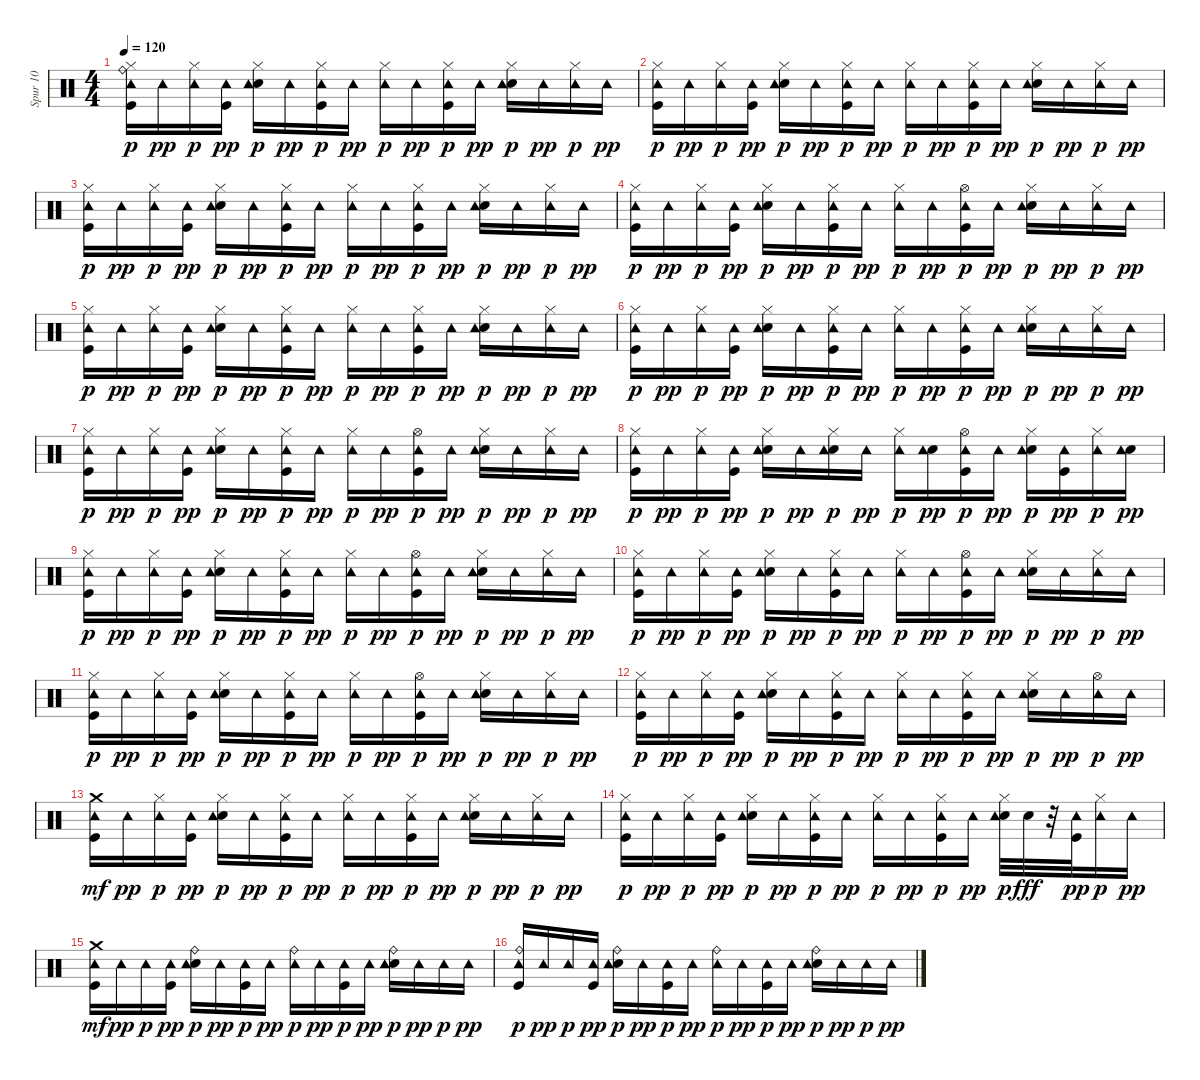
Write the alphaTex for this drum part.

\track ("Spur 10" "Spur 10") {instrument percussion}
\staff {score}
\articulation defaults
\ts (4 4)
\tempo 120
\clef neutral
\ks c
("Kick (hit)" "Hi-Hat (closed)" "Ride (bell)" "Tambourine (hit)").16{dy p} "Tambourine (hit)".16{dy pp} ("Hi-Hat (closed)" "Tambourine (hit)").16{dy p} ("Kick (hit)" "Tambourine (hit)").16{dy pp} ("Electric Snare (hit)" "Hi-Hat (closed)" "Tambourine (hit)").16{dy p} "Tambourine (hit)".16{dy pp} ("Kick (hit)" "Hi-Hat (closed)" "Tambourine (hit)").16{dy p} "Tambourine (hit)".16{dy pp} ("Hi-Hat (closed)" "Tambourine (hit)").16{dy p} "Tambourine (hit)".16{dy pp} ("Kick (hit)" "Hi-Hat (closed)" "Tambourine (hit)").16{dy p} "Tambourine (hit)".16{dy pp} ("Electric Snare (hit)" "Hi-Hat (closed)" "Tambourine (hit)").16{dy p} "Tambourine (hit)".16{dy pp} ("Hi-Hat (closed)" "Tambourine (hit)").16{dy p} "Tambourine (hit)".16{dy pp} |
("Kick (hit)" "Hi-Hat (closed)" "Tambourine (hit)").16{dy p} "Tambourine (hit)".16{dy pp} ("Hi-Hat (closed)" "Tambourine (hit)").16{dy p} ("Kick (hit)" "Tambourine (hit)").16{dy pp} ("Electric Snare (hit)" "Hi-Hat (closed)" "Tambourine (hit)").16{dy p} "Tambourine (hit)".16{dy pp} ("Kick (hit)" "Hi-Hat (closed)" "Tambourine (hit)").16{dy p} "Tambourine (hit)".16{dy pp} ("Hi-Hat (closed)" "Tambourine (hit)").16{dy p} "Tambourine (hit)".16{dy pp} ("Kick (hit)" "Hi-Hat (closed)" "Tambourine (hit)").16{dy p} "Tambourine (hit)".16{dy pp} ("Electric Snare (hit)" "Hi-Hat (closed)" "Tambourine (hit)").16{dy p} "Tambourine (hit)".16{dy pp} ("Hi-Hat (closed)" "Tambourine (hit)").16{dy p} "Tambourine (hit)".16{dy pp} |
("Kick (hit)" "Hi-Hat (closed)" "Tambourine (hit)").16{dy p} "Tambourine (hit)".16{dy pp} ("Hi-Hat (closed)" "Tambourine (hit)").16{dy p} ("Kick (hit)" "Tambourine (hit)").16{dy pp} ("Electric Snare (hit)" "Hi-Hat (closed)" "Tambourine (hit)").16{dy p} "Tambourine (hit)".16{dy pp} ("Kick (hit)" "Hi-Hat (closed)" "Tambourine (hit)").16{dy p} "Tambourine (hit)".16{dy pp} ("Hi-Hat (closed)" "Tambourine (hit)").16{dy p} "Tambourine (hit)".16{dy pp} ("Kick (hit)" "Hi-Hat (closed)" "Tambourine (hit)").16{dy p} "Tambourine (hit)".16{dy pp} ("Electric Snare (hit)" "Hi-Hat (closed)" "Tambourine (hit)").16{dy p} "Tambourine (hit)".16{dy pp} ("Hi-Hat (closed)" "Tambourine (hit)").16{dy p} "Tambourine (hit)".16{dy pp} |
("Kick (hit)" "Hi-Hat (closed)" "Tambourine (hit)").16{dy p} "Tambourine (hit)".16{dy pp} ("Hi-Hat (closed)" "Tambourine (hit)").16{dy p} ("Kick (hit)" "Tambourine (hit)").16{dy pp} ("Electric Snare (hit)" "Hi-Hat (closed)" "Tambourine (hit)").16{dy p} "Tambourine (hit)".16{dy pp} ("Kick (hit)" "Hi-Hat (closed)" "Tambourine (hit)").16{dy p} "Tambourine (hit)".16{dy pp} ("Hi-Hat (closed)" "Tambourine (hit)").16{dy p} "Tambourine (hit)".16{dy pp} ("Kick (hit)" "Hi-Hat (open)" "Tambourine (hit)").16{dy p} "Tambourine (hit)".16{dy pp} ("Electric Snare (hit)" "Hi-Hat (closed)" "Tambourine (hit)").16{dy p} "Tambourine (hit)".16{dy pp} ("Hi-Hat (closed)" "Tambourine (hit)").16{dy p} "Tambourine (hit)".16{dy pp} |
("Kick (hit)" "Hi-Hat (closed)" "Tambourine (hit)").16{dy p} "Tambourine (hit)".16{dy pp} ("Hi-Hat (closed)" "Tambourine (hit)").16{dy p} ("Kick (hit)" "Tambourine (hit)").16{dy pp} ("Electric Snare (hit)" "Hi-Hat (closed)" "Tambourine (hit)").16{dy p} "Tambourine (hit)".16{dy pp} ("Kick (hit)" "Hi-Hat (closed)" "Tambourine (hit)").16{dy p} "Tambourine (hit)".16{dy pp} ("Hi-Hat (closed)" "Tambourine (hit)").16{dy p} "Tambourine (hit)".16{dy pp} ("Kick (hit)" "Hi-Hat (closed)" "Tambourine (hit)").16{dy p} "Tambourine (hit)".16{dy pp} ("Electric Snare (hit)" "Hi-Hat (closed)" "Tambourine (hit)").16{dy p} "Tambourine (hit)".16{dy pp} ("Hi-Hat (closed)" "Tambourine (hit)").16{dy p} "Tambourine (hit)".16{dy pp} |
("Kick (hit)" "Hi-Hat (closed)" "Tambourine (hit)").16{dy p} "Tambourine (hit)".16{dy pp} ("Hi-Hat (closed)" "Tambourine (hit)").16{dy p} ("Kick (hit)" "Tambourine (hit)").16{dy pp} ("Electric Snare (hit)" "Hi-Hat (closed)" "Tambourine (hit)").16{dy p} "Tambourine (hit)".16{dy pp} ("Kick (hit)" "Hi-Hat (closed)" "Tambourine (hit)").16{dy p} "Tambourine (hit)".16{dy pp} ("Hi-Hat (closed)" "Tambourine (hit)").16{dy p} "Tambourine (hit)".16{dy pp} ("Kick (hit)" "Hi-Hat (closed)" "Tambourine (hit)").16{dy p} "Tambourine (hit)".16{dy pp} ("Electric Snare (hit)" "Hi-Hat (closed)" "Tambourine (hit)").16{dy p} "Tambourine (hit)".16{dy pp} ("Hi-Hat (closed)" "Tambourine (hit)").16{dy p} "Tambourine (hit)".16{dy pp} |
("Kick (hit)" "Hi-Hat (closed)" "Tambourine (hit)").16{dy p} "Tambourine (hit)".16{dy pp} ("Hi-Hat (closed)" "Tambourine (hit)").16{dy p} ("Kick (hit)" "Tambourine (hit)").16{dy pp} ("Electric Snare (hit)" "Hi-Hat (closed)" "Tambourine (hit)").16{dy p} "Tambourine (hit)".16{dy pp} ("Kick (hit)" "Hi-Hat (closed)" "Tambourine (hit)").16{dy p} "Tambourine (hit)".16{dy pp} ("Hi-Hat (closed)" "Tambourine (hit)").16{dy p} "Tambourine (hit)".16{dy pp} ("Kick (hit)" "Hi-Hat (open)" "Tambourine (hit)").16{dy p} "Tambourine (hit)".16{dy pp} ("Electric Snare (hit)" "Hi-Hat (closed)" "Tambourine (hit)").16{dy p} "Tambourine (hit)".16{dy pp} ("Hi-Hat (closed)" "Tambourine (hit)").16{dy p} "Tambourine (hit)".16{dy pp} |
("Kick (hit)" "Hi-Hat (closed)" "Tambourine (hit)").16{dy p} "Tambourine (hit)".16{dy pp} ("Hi-Hat (closed)" "Tambourine (hit)").16{dy p} ("Kick (hit)" "Tambourine (hit)").16{dy pp} ("Electric Snare (hit)" "Hi-Hat (closed)" "Tambourine (hit)").16{dy p} "Tambourine (hit)".16{dy pp} ("Electric Snare (hit)" "Hi-Hat (closed)" "Tambourine (hit)").16{dy p} "Tambourine (hit)".16{dy pp} ("Hi-Hat (closed)" "Tambourine (hit)").16{dy p} ("Electric Snare (hit)" "Tambourine (hit)").16{dy pp} ("Kick (hit)" "Hi-Hat (open)" "Tambourine (hit)").16{dy p} "Tambourine (hit)".16{dy pp} ("Electric Snare (hit)" "Hi-Hat (closed)" "Tambourine (hit)").16{dy p} ("Kick (hit)" "Tambourine (hit)").16{dy pp} ("Hi-Hat (closed)" "Tambourine (hit)").16{dy p} ("Electric Snare (hit)" "Tambourine (hit)").16{dy pp} |
("Kick (hit)" "Hi-Hat (closed)" "Tambourine (hit)").16{dy p} "Tambourine (hit)".16{dy pp} ("Hi-Hat (closed)" "Tambourine (hit)").16{dy p} ("Kick (hit)" "Tambourine (hit)").16{dy pp} ("Electric Snare (hit)" "Hi-Hat (closed)" "Tambourine (hit)").16{dy p} "Tambourine (hit)".16{dy pp} ("Kick (hit)" "Hi-Hat (closed)" "Tambourine (hit)").16{dy p} "Tambourine (hit)".16{dy pp} ("Hi-Hat (closed)" "Tambourine (hit)").16{dy p} "Tambourine (hit)".16{dy pp} ("Kick (hit)" "Hi-Hat (open)" "Tambourine (hit)").16{dy p} "Tambourine (hit)".16{dy pp} ("Electric Snare (hit)" "Hi-Hat (closed)" "Tambourine (hit)").16{dy p} "Tambourine (hit)".16{dy pp} ("Hi-Hat (closed)" "Tambourine (hit)").16{dy p} "Tambourine (hit)".16{dy pp} |
("Kick (hit)" "Hi-Hat (closed)" "Tambourine (hit)").16{dy p} "Tambourine (hit)".16{dy pp} ("Hi-Hat (closed)" "Tambourine (hit)").16{dy p} ("Kick (hit)" "Tambourine (hit)").16{dy pp} ("Electric Snare (hit)" "Hi-Hat (closed)" "Tambourine (hit)").16{dy p} "Tambourine (hit)".16{dy pp} ("Kick (hit)" "Hi-Hat (closed)" "Tambourine (hit)").16{dy p} "Tambourine (hit)".16{dy pp} ("Hi-Hat (closed)" "Tambourine (hit)").16{dy p} "Tambourine (hit)".16{dy pp} ("Kick (hit)" "Hi-Hat (open)" "Tambourine (hit)").16{dy p} "Tambourine (hit)".16{dy pp} ("Electric Snare (hit)" "Hi-Hat (closed)" "Tambourine (hit)").16{dy p} "Tambourine (hit)".16{dy pp} ("Hi-Hat (closed)" "Tambourine (hit)").16{dy p} "Tambourine (hit)".16{dy pp} |
("Kick (hit)" "Hi-Hat (closed)" "Tambourine (hit)").16{dy p} "Tambourine (hit)".16{dy pp} ("Hi-Hat (closed)" "Tambourine (hit)").16{dy p} ("Kick (hit)" "Tambourine (hit)").16{dy pp} ("Electric Snare (hit)" "Hi-Hat (closed)" "Tambourine (hit)").16{dy p} "Tambourine (hit)".16{dy pp} ("Kick (hit)" "Hi-Hat (closed)" "Tambourine (hit)").16{dy p} "Tambourine (hit)".16{dy pp} ("Hi-Hat (closed)" "Tambourine (hit)").16{dy p} "Tambourine (hit)".16{dy pp} ("Kick (hit)" "Hi-Hat (open)" "Tambourine (hit)").16{dy p} "Tambourine (hit)".16{dy pp} ("Electric Snare (hit)" "Hi-Hat (closed)" "Tambourine (hit)").16{dy p} "Tambourine (hit)".16{dy pp} ("Hi-Hat (closed)" "Tambourine (hit)").16{dy p} "Tambourine (hit)".16{dy pp} |
("Kick (hit)" "Hi-Hat (closed)" "Tambourine (hit)").16{dy p} "Tambourine (hit)".16{dy pp} ("Hi-Hat (closed)" "Tambourine (hit)").16{dy p} ("Kick (hit)" "Tambourine (hit)").16{dy pp} ("Electric Snare (hit)" "Hi-Hat (closed)" "Tambourine (hit)").16{dy p} "Tambourine (hit)".16{dy pp} ("Kick (hit)" "Hi-Hat (closed)" "Tambourine (hit)").16{dy p} "Tambourine (hit)".16{dy pp} ("Hi-Hat (closed)" "Tambourine (hit)").16{dy p} "Tambourine (hit)".16{dy pp} ("Kick (hit)" "Hi-Hat (closed)" "Tambourine (hit)").16{dy p} "Tambourine (hit)".16{dy pp} ("Electric Snare (hit)" "Hi-Hat (closed)" "Tambourine (hit)").16{dy p} "Tambourine (hit)".16{dy pp} ("Hi-Hat (open)" "Tambourine (hit)").16{dy p} "Tambourine (hit)".16{dy pp} |
("Kick (hit)" "Tambourine (hit)" "Crash medium (hit)").16{dy mf} "Tambourine (hit)".16{dy pp} ("Hi-Hat (closed)" "Tambourine (hit)").16{dy p} ("Kick (hit)" "Tambourine (hit)").16{dy pp} ("Electric Snare (hit)" "Hi-Hat (closed)" "Tambourine (hit)").16{dy p} "Tambourine (hit)".16{dy pp} ("Kick (hit)" "Hi-Hat (closed)" "Tambourine (hit)").16{dy p} "Tambourine (hit)".16{dy pp} ("Hi-Hat (closed)" "Tambourine (hit)").16{dy p} "Tambourine (hit)".16{dy pp} ("Kick (hit)" "Hi-Hat (closed)" "Tambourine (hit)").16{dy p} "Tambourine (hit)".16{dy pp} ("Electric Snare (hit)" "Hi-Hat (closed)" "Tambourine (hit)").16{dy p} "Tambourine (hit)".16{dy pp} ("Hi-Hat (closed)" "Tambourine (hit)").16{dy p} "Tambourine (hit)".16{dy pp} |
("Kick (hit)" "Hi-Hat (closed)" "Tambourine (hit)").16{dy p} "Tambourine (hit)".16{dy pp} ("Hi-Hat (closed)" "Tambourine (hit)").16{dy p} ("Kick (hit)" "Tambourine (hit)").16{dy pp} ("Electric Snare (hit)" "Hi-Hat (closed)" "Tambourine (hit)").16{dy p} "Tambourine (hit)".16{dy pp} ("Kick (hit)" "Hi-Hat (closed)" "Tambourine (hit)").16{dy p} "Tambourine (hit)".16{dy pp} ("Hi-Hat (closed)" "Tambourine (hit)").16{dy p} "Tambourine (hit)".16{dy pp} ("Kick (hit)" "Hi-Hat (closed)" "Tambourine (hit)").16{dy p} "Tambourine (hit)".16{dy pp} ("Electric Snare (hit)" "Hi-Hat (closed)" "Tambourine (hit)").32{dy p} "Electric Snare (hit)".32{dy fff} r.32 ("Kick (hit)" "Tambourine (hit)").32{dy pp} ("Hi-Hat (closed)" "Tambourine (hit)").16{dy p} "Tambourine (hit)".16{dy pp} |
("Kick (hit)" "Tambourine (hit)" "Crash medium (hit)").16{dy mf} "Tambourine (hit)".16{dy pp} "Tambourine (hit)".16{dy p} ("Kick (hit)" "Tambourine (hit)").16{dy pp} ("Electric Snare (hit)" "Ride (bell)" "Tambourine (hit)").16{dy p} "Tambourine (hit)".16{dy pp} ("Kick (hit)" "Tambourine (hit)").16{dy p} "Tambourine (hit)".16{dy pp} ("Ride (bell)" "Tambourine (hit)").16{dy p} "Tambourine (hit)".16{dy pp} ("Kick (hit)" "Tambourine (hit)").16{dy p} "Tambourine (hit)".16{dy pp} ("Electric Snare (hit)" "Ride (bell)" "Tambourine (hit)").16{dy p} "Tambourine (hit)".16{dy pp} "Tambourine (hit)".16{dy p} "Tambourine (hit)".16{dy pp} |
("Kick (hit)" "Ride (bell)" "Tambourine (hit)").16{dy p} "Tambourine (hit)".16{dy pp} "Tambourine (hit)".16{dy p} ("Kick (hit)" "Tambourine (hit)").16{dy pp} ("Electric Snare (hit)" "Ride (bell)" "Tambourine (hit)").16{dy p} "Tambourine (hit)".16{dy pp} ("Kick (hit)" "Tambourine (hit)").16{dy p} "Tambourine (hit)".16{dy pp} ("Ride (bell)" "Tambourine (hit)").16{dy p} "Tambourine (hit)".16{dy pp} ("Kick (hit)" "Tambourine (hit)").16{dy p} "Tambourine (hit)".16{dy pp} ("Electric Snare (hit)" "Ride (bell)" "Tambourine (hit)").16{dy p} "Tambourine (hit)".16{dy pp} "Tambourine (hit)".16{dy p} "Tambourine (hit)".16{dy pp}
